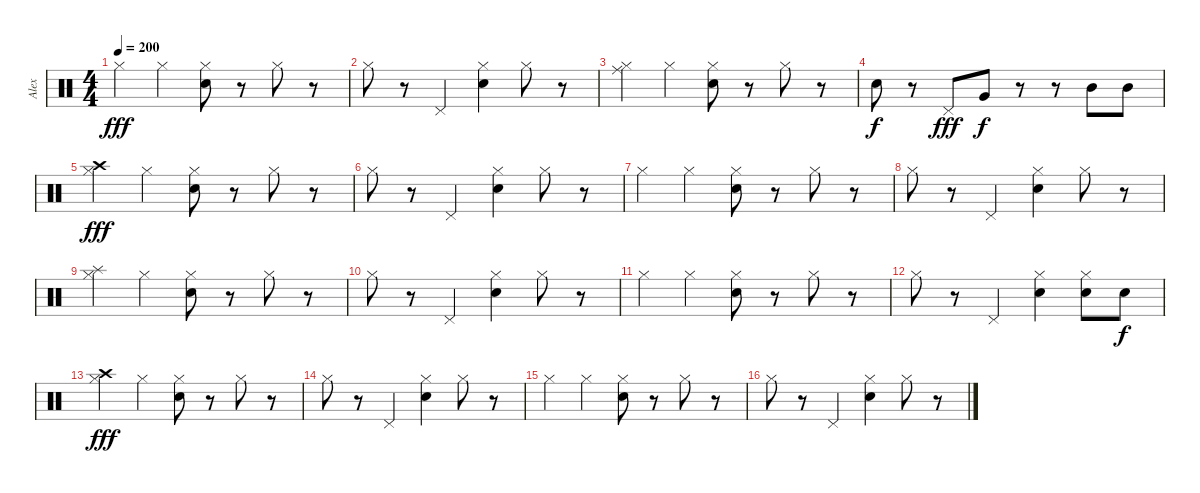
\track ("Alex" "Alex") {instrument percussion}
\staff {score}
\articulation defaults
\ts (4 4)
\tempo 200
\clef neutral
\ks c "Hi-Hat (closed)".4{dy fff} "Hi-Hat (closed)".4
("Electric Snare (hit)" "Hi-Hat (closed)").8 r.8 "Hi-Hat (closed)".8 r.8 |
"Hi-Hat (closed)".8 r.8 "Pedal Hi-Hat (hit)".4 ("Electric Snare (hit)" "Hi-Hat (closed)").4 "Hi-Hat (closed)".8 r.8 |
("Hi-Hat (closed)" "Ride (middle)").4 "Hi-Hat (closed)".4 ("Electric Snare (hit)" "Hi-Hat (closed)").8 r.8 "Hi-Hat (closed)".8 r.8 |
"Snare (hit) 2".8{dy f} r.8 "Pedal Hi-Hat (hit)".8{dy fff} "Very Low Tom (hit)".8{dy f} r.8 r.8 "Mid Tom (hit)".8 "Mid Tom (hit)".8 |
("Crash high (hit)" "Hi-Hat (closed)").4{dy fff} "Hi-Hat (closed)".4 ("Electric Snare (hit)" "Hi-Hat (closed)").8 r.8 "Hi-Hat (closed)".8 r.8 |
"Hi-Hat (closed)".8 r.8 "Pedal Hi-Hat (hit)".4 ("Electric Snare (hit)" "Hi-Hat (closed)").4 "Hi-Hat (closed)".8 r.8 |
"Hi-Hat (closed)".4 "Hi-Hat (closed)".4 ("Electric Snare (hit)" "Hi-Hat (closed)").8 r.8 "Hi-Hat (closed)".8 r.8 |
"Hi-Hat (closed)".8 r.8 "Pedal Hi-Hat (hit)".4 ("Electric Snare (hit)" "Hi-Hat (closed)").4 "Hi-Hat (closed)".8 r.8 |
("Hi-Hat (closed)" "Splash (hit)").4 "Hi-Hat (closed)".4 ("Electric Snare (hit)" "Hi-Hat (closed)").8 r.8 "Hi-Hat (closed)".8 r.8 |
"Hi-Hat (closed)".8 r.8 "Pedal Hi-Hat (hit)".4 ("Electric Snare (hit)" "Hi-Hat (closed)").4 "Hi-Hat (closed)".8 r.8 |
"Hi-Hat (closed)".4 "Hi-Hat (closed)".4 ("Electric Snare (hit)" "Hi-Hat (closed)").8 r.8 "Hi-Hat (closed)".8 r.8 |
"Hi-Hat (closed)".8 r.8 "Pedal Hi-Hat (hit)".4 ("Electric Snare (hit)" "Hi-Hat (closed)").4 ("Electric Snare (hit)" "Hi-Hat (closed)").8 "Electric Snare (hit)".8{dy f} |
("Hi-Hat (closed)" "Crash high (hit)").4{dy fff} "Hi-Hat (closed)".4 ("Electric Snare (hit)" "Hi-Hat (closed)").8 r.8 "Hi-Hat (closed)".8 r.8 |
"Hi-Hat (closed)".8 r.8 "Pedal Hi-Hat (hit)".4 ("Electric Snare (hit)" "Hi-Hat (closed)").4 "Hi-Hat (closed)".8 r.8 |
"Hi-Hat (closed)".4 "Hi-Hat (closed)".4 ("Electric Snare (hit)" "Hi-Hat (closed)").8 r.8 "Hi-Hat (closed)".8 r.8 |
"Hi-Hat (closed)".8 r.8 "Pedal Hi-Hat (hit)".4 ("Electric Snare (hit)" "Hi-Hat (closed)").4 "Hi-Hat (closed)".8 r.8
